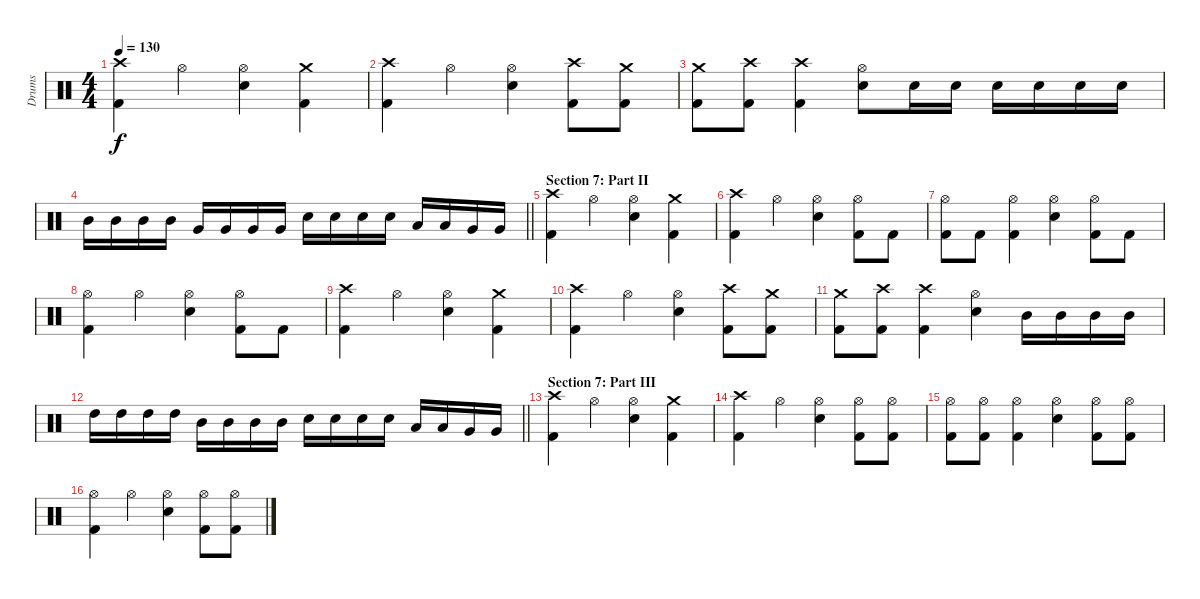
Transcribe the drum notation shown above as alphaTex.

\track ("Drums" "Drums") {instrument percussion}
\staff {score}
\articulation defaults
\ts (4 4)
\tempo 130
\clef neutral
\ks c
("Crash high (hit)" "Kick (hit) 2").4{dy f} "Hi-Hat (open)".4 ("Hi-Hat (open)" "Electric Snare (hit)").4 ("Crash medium (hit)" "Kick (hit) 2").4 |
("Crash high (hit)" "Kick (hit) 2").4 "Hi-Hat (open)".4 ("Hi-Hat (open)" "Electric Snare (hit)").4 ("Crash high (hit)" "Kick (hit) 2").8 ("Crash medium (hit)" "Kick (hit) 2").8 |
("Crash medium (hit)" "Kick (hit) 2").8 ("Crash high (hit)" "Kick (hit) 2").8 ("Crash high (hit)" "Kick (hit) 2").4 ("Hi-Hat (open)" "Electric Snare (hit)").8 "Electric Snare (hit)".16 "Electric Snare (hit)".16 "Electric Snare (hit)".16 "Electric Snare (hit)".16 "Electric Snare (hit)".16 "Electric Snare (hit)".16 |
\barLineRight lightlight "Mid Tom (hit)".16 "Mid Tom (hit)".16 "Mid Tom (hit)".16 "Mid Tom (hit)".16 "Very Low Tom (hit)".16 "Very Low Tom (hit)".16 "Very Low Tom (hit)".16 "Very Low Tom (hit)".16 "Electric Snare (hit)".16 "Electric Snare (hit)".16 "Electric Snare (hit)".16 "Electric Snare (hit)".16 "Low Tom (hit)".16 "Low Tom (hit)".16 "Very Low Tom (hit)".16 "Very Low Tom (hit)".16
|
\section ("" "Section 7: Part II")
("Crash high (hit)" "Kick (hit) 2").4 "Hi-Hat (open)".4 ("Hi-Hat (open)" "Electric Snare (hit)").4 ("Crash medium (hit)" "Kick (hit) 2").4 |
("Crash high (hit)" "Kick (hit) 2").4 "Hi-Hat (open)".4 ("Hi-Hat (open)" "Electric Snare (hit)").4 ("Hi-Hat (open)" "Kick (hit) 2").8 "Kick (hit) 2".8 |
("Hi-Hat (open)" "Kick (hit) 2").8 "Kick (hit) 2".8 ("Hi-Hat (open)" "Kick (hit) 2").4 ("Hi-Hat (open)" "Electric Snare (hit)").4 ("Hi-Hat (open)" "Kick (hit) 2").8 "Kick (hit) 2".8 |
("Hi-Hat (open)" "Kick (hit) 2").4 "Hi-Hat (open)".4 ("Hi-Hat (open)" "Electric Snare (hit)").4 ("Hi-Hat (open)" "Kick (hit) 2").8 "Kick (hit) 2".8 |
("Crash high (hit)" "Kick (hit) 2").4 "Hi-Hat (open)".4 ("Hi-Hat (open)" "Electric Snare (hit)").4 ("Crash medium (hit)" "Kick (hit) 2").4 |
("Crash high (hit)" "Kick (hit) 2").4 "Hi-Hat (open)".4 ("Hi-Hat (open)" "Electric Snare (hit)").4 ("Crash high (hit)" "Kick (hit) 2").8 ("Crash medium (hit)" "Kick (hit) 2").8 |
("Crash medium (hit)" "Kick (hit) 2").8 ("Crash high (hit)" "Kick (hit) 2").8 ("Crash high (hit)" "Kick (hit) 2").4 ("Hi-Hat (open)" "Electric Snare (hit)").4 "Mid Tom (hit)".16 "Mid Tom (hit)".16 "Mid Tom (hit)".16 "Mid Tom (hit)".16 |
\barLineRight lightlight "High Tom (hit)".16 "High Tom (hit)".16 "High Tom (hit)".16 "High Tom (hit)".16 "Mid Tom (hit)".16 "Mid Tom (hit)".16 "Mid Tom (hit)".16 "Mid Tom (hit)".16 "Electric Snare (hit)".16 "Electric Snare (hit)".16 "Electric Snare (hit)".16 "Electric Snare (hit)".16 "Low Tom (hit)".16 "Low Tom (hit)".16 "Very Low Tom (hit)".16 "Very Low Tom (hit)".16
|
\section ("" "Section 7: Part III")
("Crash high (hit)" "Kick (hit) 2").4 "Hi-Hat (open)".4 ("Hi-Hat (open)" "Electric Snare (hit)").4 ("Crash medium (hit)" "Kick (hit) 2").4 |
("Crash high (hit)" "Kick (hit) 2").4 "Hi-Hat (open)".4 ("Hi-Hat (open)" "Electric Snare (hit)").4 ("Hi-Hat (open)" "Kick (hit) 2").8 ("Hi-Hat (open)" "Kick (hit) 2").8 |
("Hi-Hat (open)" "Kick (hit) 2").8 ("Hi-Hat (open)" "Kick (hit) 2").8 ("Hi-Hat (open)" "Kick (hit) 2").4 ("Hi-Hat (open)" "Electric Snare (hit)").4 ("Hi-Hat (open)" "Kick (hit) 2").8 ("Hi-Hat (open)" "Kick (hit) 2").8 |
("Hi-Hat (open)" "Kick (hit) 2").4 "Hi-Hat (open)".4 ("Hi-Hat (open)" "Electric Snare (hit)").4 ("Hi-Hat (open)" "Kick (hit) 2").8 ("Hi-Hat (open)" "Kick (hit) 2").8
